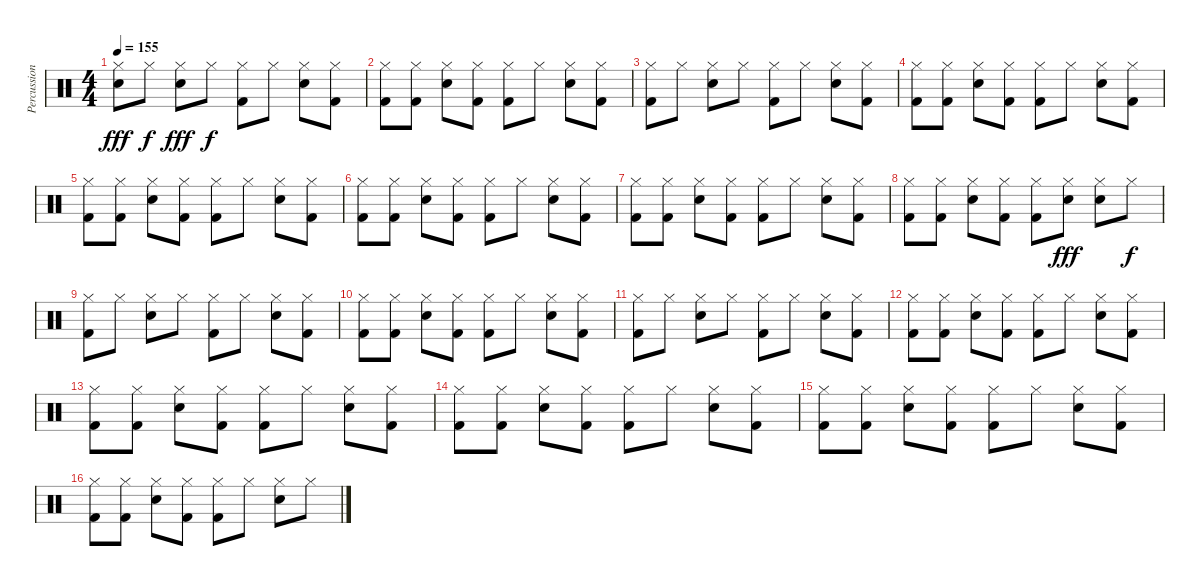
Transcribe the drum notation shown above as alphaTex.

\track ("Percussions" "Percussion") {instrument percussion}
\staff {score}
\articulation defaults
\ts (4 4)
\tempo 155
\clef neutral
\ks c
("Hi-Hat (closed)" "Electric Snare (hit)").8{dy fff} "Hi-Hat (closed)".8{dy f} ("Hi-Hat (closed)" "Electric Snare (hit)").8{dy fff} "Hi-Hat (closed)".8{dy f} ("Hi-Hat (closed)" "Kick (hit) 2").8 "Hi-Hat (closed)".8 ("Hi-Hat (closed)" "Electric Snare (hit)").8 ("Hi-Hat (closed)" "Kick (hit) 2").8 |
("Hi-Hat (closed)" "Kick (hit) 2").8 ("Hi-Hat (closed)" "Kick (hit) 2").8 ("Hi-Hat (closed)" "Electric Snare (hit)").8 ("Hi-Hat (closed)" "Kick (hit) 2").8 ("Hi-Hat (closed)" "Kick (hit) 2").8 "Hi-Hat (closed)".8 ("Hi-Hat (closed)" "Electric Snare (hit)").8 ("Hi-Hat (closed)" "Kick (hit) 2").8 |
("Hi-Hat (closed)" "Kick (hit) 2").8 "Hi-Hat (closed)".8 ("Hi-Hat (closed)" "Electric Snare (hit)").8 "Hi-Hat (closed)".8 ("Hi-Hat (closed)" "Kick (hit) 2").8 "Hi-Hat (closed)".8 ("Hi-Hat (closed)" "Electric Snare (hit)").8 ("Hi-Hat (closed)" "Kick (hit) 2").8 |
("Hi-Hat (closed)" "Kick (hit) 2").8 ("Hi-Hat (closed)" "Kick (hit) 2").8 ("Hi-Hat (closed)" "Electric Snare (hit)").8 ("Hi-Hat (closed)" "Kick (hit) 2").8 ("Hi-Hat (closed)" "Kick (hit) 2").8 "Hi-Hat (closed)".8 ("Hi-Hat (closed)" "Electric Snare (hit)").8 ("Hi-Hat (closed)" "Kick (hit) 2").8 |
("Hi-Hat (closed)" "Kick (hit) 2").8 ("Hi-Hat (closed)" "Kick (hit) 2").8 ("Hi-Hat (closed)" "Electric Snare (hit)").8 ("Hi-Hat (closed)" "Kick (hit) 2").8 ("Hi-Hat (closed)" "Kick (hit) 2").8 "Hi-Hat (closed)".8 ("Hi-Hat (closed)" "Electric Snare (hit)").8 ("Hi-Hat (closed)" "Kick (hit) 2").8 |
("Hi-Hat (closed)" "Kick (hit) 2").8 ("Hi-Hat (closed)" "Kick (hit) 2").8 ("Hi-Hat (closed)" "Electric Snare (hit)").8 ("Hi-Hat (closed)" "Kick (hit) 2").8 ("Hi-Hat (closed)" "Kick (hit) 2").8 "Hi-Hat (closed)".8 ("Hi-Hat (closed)" "Electric Snare (hit)").8 ("Hi-Hat (closed)" "Kick (hit) 2").8 |
("Hi-Hat (closed)" "Kick (hit) 2").8 ("Hi-Hat (closed)" "Kick (hit) 2").8 ("Hi-Hat (closed)" "Electric Snare (hit)").8 ("Hi-Hat (closed)" "Kick (hit) 2").8 ("Hi-Hat (closed)" "Kick (hit) 2").8 "Hi-Hat (closed)".8 ("Hi-Hat (closed)" "Electric Snare (hit)").8 ("Hi-Hat (closed)" "Kick (hit) 2").8 |
("Hi-Hat (closed)" "Kick (hit) 2").8 ("Hi-Hat (closed)" "Kick (hit) 2").8 ("Hi-Hat (closed)" "Electric Snare (hit)").8 ("Hi-Hat (closed)" "Kick (hit) 2").8 ("Hi-Hat (closed)" "Kick (hit) 2").8 ("Hi-Hat (closed)" "Electric Snare (hit)").8{dy fff} ("Hi-Hat (closed)" "Electric Snare (hit)").8 "Hi-Hat (closed)".8{dy f} |
("Hi-Hat (closed)" "Kick (hit) 2").8 "Hi-Hat (closed)".8 ("Hi-Hat (closed)" "Electric Snare (hit)").8 "Hi-Hat (closed)".8 ("Hi-Hat (closed)" "Kick (hit) 2").8 "Hi-Hat (closed)".8 ("Hi-Hat (closed)" "Electric Snare (hit)").8 ("Hi-Hat (closed)" "Kick (hit) 2").8 |
("Hi-Hat (closed)" "Kick (hit) 2").8 ("Hi-Hat (closed)" "Kick (hit) 2").8 ("Hi-Hat (closed)" "Electric Snare (hit)").8 ("Hi-Hat (closed)" "Kick (hit) 2").8 ("Hi-Hat (closed)" "Kick (hit) 2").8 "Hi-Hat (closed)".8 ("Hi-Hat (closed)" "Electric Snare (hit)").8 ("Hi-Hat (closed)" "Kick (hit) 2").8 |
("Hi-Hat (closed)" "Kick (hit) 2").8 "Hi-Hat (closed)".8 ("Hi-Hat (closed)" "Electric Snare (hit)").8 "Hi-Hat (closed)".8 ("Hi-Hat (closed)" "Kick (hit) 2").8 "Hi-Hat (closed)".8 ("Hi-Hat (closed)" "Electric Snare (hit)").8 ("Hi-Hat (closed)" "Kick (hit) 2").8 |
("Hi-Hat (closed)" "Kick (hit) 2").8 ("Hi-Hat (closed)" "Kick (hit) 2").8 ("Hi-Hat (closed)" "Electric Snare (hit)").8 ("Hi-Hat (closed)" "Kick (hit) 2").8 ("Hi-Hat (closed)" "Kick (hit) 2").8 "Hi-Hat (closed)".8 ("Hi-Hat (closed)" "Electric Snare (hit)").8 ("Hi-Hat (closed)" "Kick (hit) 2").8 |
("Hi-Hat (closed)" "Kick (hit) 2").8 ("Hi-Hat (closed)" "Kick (hit) 2").8 ("Hi-Hat (closed)" "Electric Snare (hit)").8 ("Hi-Hat (closed)" "Kick (hit) 2").8 ("Hi-Hat (closed)" "Kick (hit) 2").8 "Hi-Hat (closed)".8 ("Hi-Hat (closed)" "Electric Snare (hit)").8 ("Hi-Hat (closed)" "Kick (hit) 2").8 |
("Hi-Hat (closed)" "Kick (hit) 2").8 ("Hi-Hat (closed)" "Kick (hit) 2").8 ("Hi-Hat (closed)" "Electric Snare (hit)").8 ("Hi-Hat (closed)" "Kick (hit) 2").8 ("Hi-Hat (closed)" "Kick (hit) 2").8 "Hi-Hat (closed)".8 ("Hi-Hat (closed)" "Electric Snare (hit)").8 ("Hi-Hat (closed)" "Kick (hit) 2").8 |
("Hi-Hat (closed)" "Kick (hit) 2").8 ("Hi-Hat (closed)" "Kick (hit) 2").8 ("Hi-Hat (closed)" "Electric Snare (hit)").8 ("Hi-Hat (closed)" "Kick (hit) 2").8 ("Hi-Hat (closed)" "Kick (hit) 2").8 "Hi-Hat (closed)".8 ("Hi-Hat (closed)" "Electric Snare (hit)").8 ("Hi-Hat (closed)" "Kick (hit) 2").8 |
("Hi-Hat (closed)" "Kick (hit) 2").8 ("Hi-Hat (closed)" "Kick (hit) 2").8 ("Hi-Hat (closed)" "Electric Snare (hit)").8 ("Hi-Hat (closed)" "Kick (hit) 2").8 ("Hi-Hat (closed)" "Kick (hit) 2").8 "Hi-Hat (closed)".8 ("Hi-Hat (closed)" "Electric Snare (hit)").8 "Hi-Hat (closed)".8
